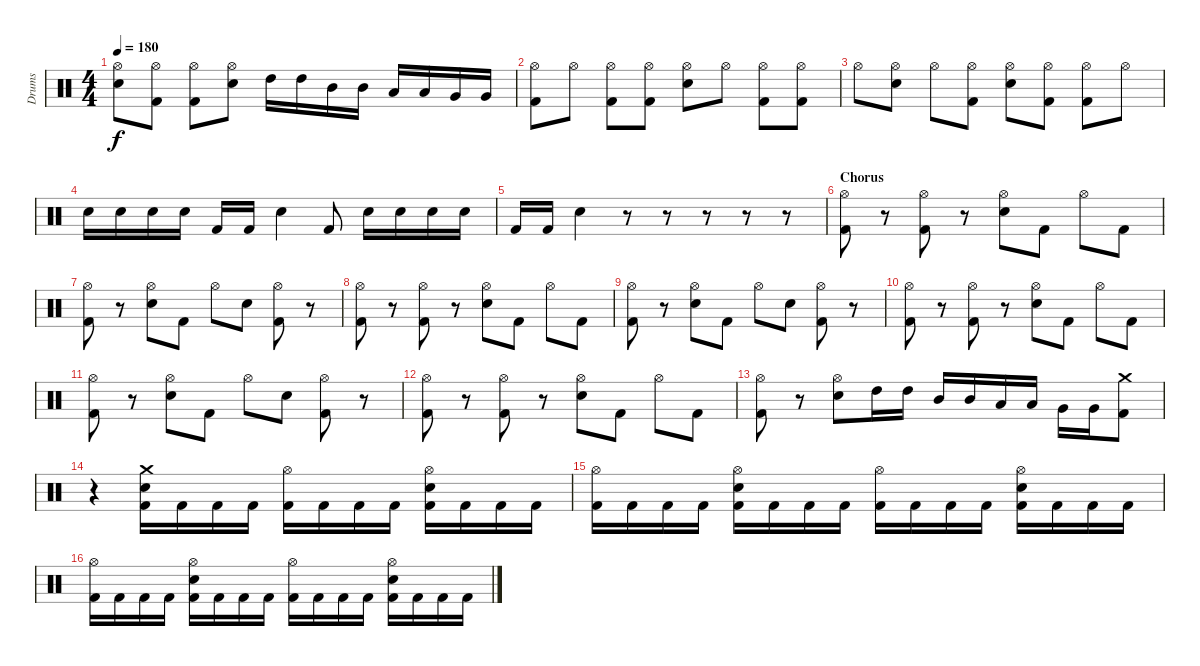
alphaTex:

\track ("Drums" "Drums") {instrument percussion}
\staff {score}
\articulation defaults
\ts (4 4)
\tempo 180
\clef neutral
\ks c
("Hi-Hat (open)" "Electric Snare (hit)").8{dy f} ("Hi-Hat (open)" "Kick (hit) 2").8 ("Hi-Hat (open)" "Kick (hit) 2").8 ("Hi-Hat (open)" "Electric Snare (hit)").8 "High Tom (hit)".16 "High Tom (hit)".16 "Mid Tom (hit)".16 "Mid Tom (hit)".16 "Low Tom (hit)".16 "Low Tom (hit)".16 "Very Low Tom (hit)".16 "Very Low Tom (hit)".16 |
("Hi-Hat (open)" "Kick (hit) 2").8 "Hi-Hat (open)".8 ("Hi-Hat (open)" "Kick (hit) 2").8 ("Hi-Hat (open)" "Kick (hit) 2").8 ("Hi-Hat (open)" "Electric Snare (hit)").8 "Hi-Hat (open)".8 ("Hi-Hat (open)" "Kick (hit) 2").8 ("Hi-Hat (open)" "Kick (hit) 2").8 |
"Hi-Hat (open)".8 ("Hi-Hat (open)" "Electric Snare (hit)").8 "Hi-Hat (open)".8 ("Hi-Hat (open)" "Kick (hit) 2").8 ("Hi-Hat (open)" "Electric Snare (hit)").8 ("Hi-Hat (open)" "Kick (hit) 2").8 ("Hi-Hat (open)" "Kick (hit) 2").8 "Hi-Hat (open)".8 |
"Electric Snare (hit)".16 "Electric Snare (hit)".16 "Electric Snare (hit)".16 "Electric Snare (hit)".16 "Kick (hit) 2".16 "Kick (hit) 2".16 "Electric Snare (hit)".4 "Kick (hit) 2".8 "Electric Snare (hit)".16 "Electric Snare (hit)".16 "Electric Snare (hit)".16 "Electric Snare (hit)".16 |
"Kick (hit) 2".16 "Kick (hit) 2".16 "Electric Snare (hit)".4 r.8 r.8 r.8 r.8 r.8 |
\section ("" "Chorus")
("Hi-Hat (open)" "Kick (hit) 2").8 r.8 ("Hi-Hat (open)" "Kick (hit) 2").8 r.8 ("Hi-Hat (open)" "Electric Snare (hit)").8 "Kick (hit) 2".8 "Hi-Hat (open)".8 "Kick (hit) 2".8 |
("Hi-Hat (open)" "Kick (hit) 2").8 r.8 ("Hi-Hat (open)" "Electric Snare (hit)").8 "Kick (hit) 2".8 "Hi-Hat (open)".8 "Electric Snare (hit)".8 ("Hi-Hat (open)" "Kick (hit) 2").8 r.8 |
("Hi-Hat (open)" "Kick (hit) 2").8 r.8 ("Hi-Hat (open)" "Kick (hit) 2").8 r.8 ("Hi-Hat (open)" "Electric Snare (hit)").8 "Kick (hit) 2".8 "Hi-Hat (open)".8 "Kick (hit) 2".8 |
("Hi-Hat (open)" "Kick (hit) 2").8 r.8 ("Hi-Hat (open)" "Electric Snare (hit)").8 "Kick (hit) 2".8 "Hi-Hat (open)".8 "Electric Snare (hit)".8 ("Hi-Hat (open)" "Kick (hit) 2").8 r.8 |
("Hi-Hat (open)" "Kick (hit) 2").8 r.8 ("Hi-Hat (open)" "Kick (hit) 2").8 r.8 ("Hi-Hat (open)" "Electric Snare (hit)").8 "Kick (hit) 2".8 "Hi-Hat (open)".8 "Kick (hit) 2".8 |
("Hi-Hat (open)" "Kick (hit) 2").8 r.8 ("Hi-Hat (open)" "Electric Snare (hit)").8 "Kick (hit) 2".8 "Hi-Hat (open)".8 "Electric Snare (hit)".8 ("Hi-Hat (open)" "Kick (hit) 2").8 r.8 |
("Hi-Hat (open)" "Kick (hit) 2").8 r.8 ("Hi-Hat (open)" "Kick (hit) 2").8 r.8 ("Hi-Hat (open)" "Electric Snare (hit)").8 "Kick (hit) 2".8 "Hi-Hat (open)".8 "Kick (hit) 2".8 |
("Hi-Hat (open)" "Kick (hit) 2").8 r.8 ("Hi-Hat (open)" "Electric Snare (hit)").8 "High Tom (hit)".16 "High Tom (hit)".16 "Mid Tom (hit)".16 "Mid Tom (hit)".16 "Low Tom (hit)".16 "Low Tom (hit)".16 "Very Low Tom (hit)".16 "Very Low Tom (hit)".16 ("Crash medium (hit)" "Kick (hit) 2").8 |
r.4 ("Crash medium (hit)" "Electric Snare (hit)" "Kick (hit) 2").16 "Kick (hit) 2".16 "Kick (hit) 2".16 "Kick (hit) 2".16 ("Hi-Hat (open)" "Kick (hit) 2").16 "Kick (hit) 2".16 "Kick (hit) 2".16 "Kick (hit) 2".16 ("Hi-Hat (open)" "Electric Snare (hit)" "Kick (hit) 2").16 "Kick (hit) 2".16 "Kick (hit) 2".16 "Kick (hit) 2".16 |
("Hi-Hat (open)" "Kick (hit) 2").16 "Kick (hit) 2".16 "Kick (hit) 2".16 "Kick (hit) 2".16 ("Hi-Hat (open)" "Electric Snare (hit)" "Kick (hit) 2").16 "Kick (hit) 2".16 "Kick (hit) 2".16 "Kick (hit) 2".16 ("Hi-Hat (open)" "Kick (hit) 2").16 "Kick (hit) 2".16 "Kick (hit) 2".16 "Kick (hit) 2".16 ("Hi-Hat (open)" "Electric Snare (hit)" "Kick (hit) 2").16 "Kick (hit) 2".16 "Kick (hit) 2".16 "Kick (hit) 2".16 |
("Hi-Hat (open)" "Kick (hit) 2").16 "Kick (hit) 2".16 "Kick (hit) 2".16 "Kick (hit) 2".16 ("Hi-Hat (open)" "Electric Snare (hit)" "Kick (hit) 2").16 "Kick (hit) 2".16 "Kick (hit) 2".16 "Kick (hit) 2".16 ("Hi-Hat (open)" "Kick (hit) 2").16 "Kick (hit) 2".16 "Kick (hit) 2".16 "Kick (hit) 2".16 ("Hi-Hat (open)" "Electric Snare (hit)" "Kick (hit) 2").16 "Kick (hit) 2".16 "Kick (hit) 2".16 "Kick (hit) 2".16
